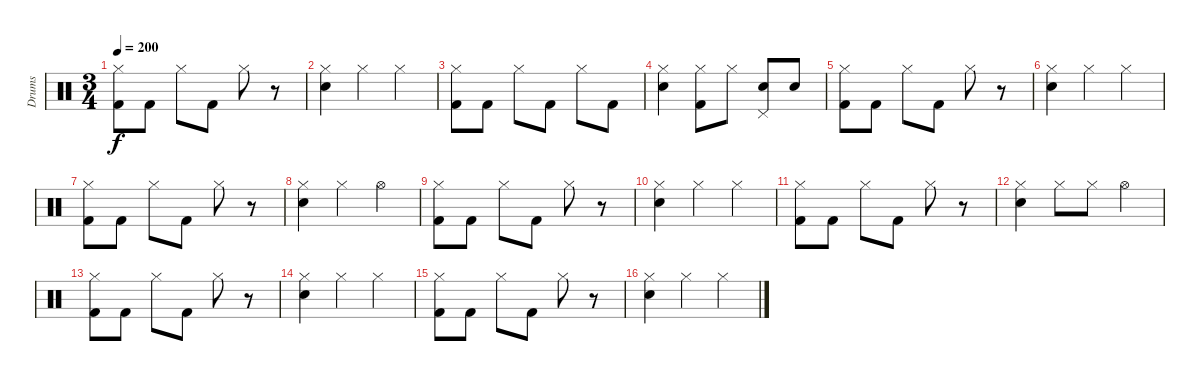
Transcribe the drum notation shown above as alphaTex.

\track ("Drums" "Drums") {instrument percussion}
\staff {score}
\articulation defaults
\ts (3 4)
\tempo 200
\clef neutral
\ks c
("Hi-Hat (closed)" "Kick (hit) 2").8{dy f} "Kick (hit) 2".8 "Hi-Hat (closed)".8 "Kick (hit) 2".8 "Hi-Hat (closed)".8 r.8 |
("Hi-Hat (closed)" "Electric Snare (hit)").4 "Hi-Hat (closed)".4 "Hi-Hat (closed)".4 |
("Hi-Hat (closed)" "Kick (hit) 2").8 "Kick (hit) 2".8 "Hi-Hat (closed)".8 "Kick (hit) 2".8 "Hi-Hat (closed)".8 "Kick (hit) 2".8 |
("Hi-Hat (closed)" "Electric Snare (hit)").4 ("Hi-Hat (closed)" "Kick (hit) 2").8 "Hi-Hat (closed)".8 ("Pedal Hi-Hat (hit)" "Electric Snare (hit)").8 "Electric Snare (hit)".8 |
("Hi-Hat (closed)" "Kick (hit) 2").8 "Kick (hit) 2".8 "Hi-Hat (closed)".8 "Kick (hit) 2".8 "Hi-Hat (closed)".8 r.8 |
("Hi-Hat (closed)" "Electric Snare (hit)").4 "Hi-Hat (closed)".4 "Hi-Hat (closed)".4 |
("Hi-Hat (closed)" "Kick (hit) 2").8 "Kick (hit) 2".8 "Hi-Hat (closed)".8 "Kick (hit) 2".8 "Hi-Hat (closed)".8 r.8 |
("Hi-Hat (closed)" "Electric Snare (hit)").4 "Hi-Hat (closed)".4 "Hi-Hat (open)".4 |
("Hi-Hat (closed)" "Kick (hit) 2").8 "Kick (hit) 2".8 "Hi-Hat (closed)".8 "Kick (hit) 2".8 "Hi-Hat (closed)".8 r.8 |
("Hi-Hat (closed)" "Electric Snare (hit)").4 "Hi-Hat (closed)".4 "Hi-Hat (closed)".4 |
("Hi-Hat (closed)" "Kick (hit) 2").8 "Kick (hit) 2".8 "Hi-Hat (closed)".8 "Kick (hit) 2".8 "Hi-Hat (closed)".8 r.8 |
("Hi-Hat (closed)" "Electric Snare (hit)").4 "Hi-Hat (closed)".8 "Hi-Hat (closed)".8 "Hi-Hat (open)".4 |
("Hi-Hat (closed)" "Kick (hit) 2").8 "Kick (hit) 2".8 "Hi-Hat (closed)".8 "Kick (hit) 2".8 "Hi-Hat (closed)".8 r.8 |
("Hi-Hat (closed)" "Electric Snare (hit)").4 "Hi-Hat (closed)".4 "Hi-Hat (closed)".4 |
("Hi-Hat (closed)" "Kick (hit) 2").8 "Kick (hit) 2".8 "Hi-Hat (closed)".8 "Kick (hit) 2".8 "Hi-Hat (closed)".8 r.8 |
("Hi-Hat (closed)" "Electric Snare (hit)").4 "Hi-Hat (closed)".4 "Hi-Hat (closed)".4
